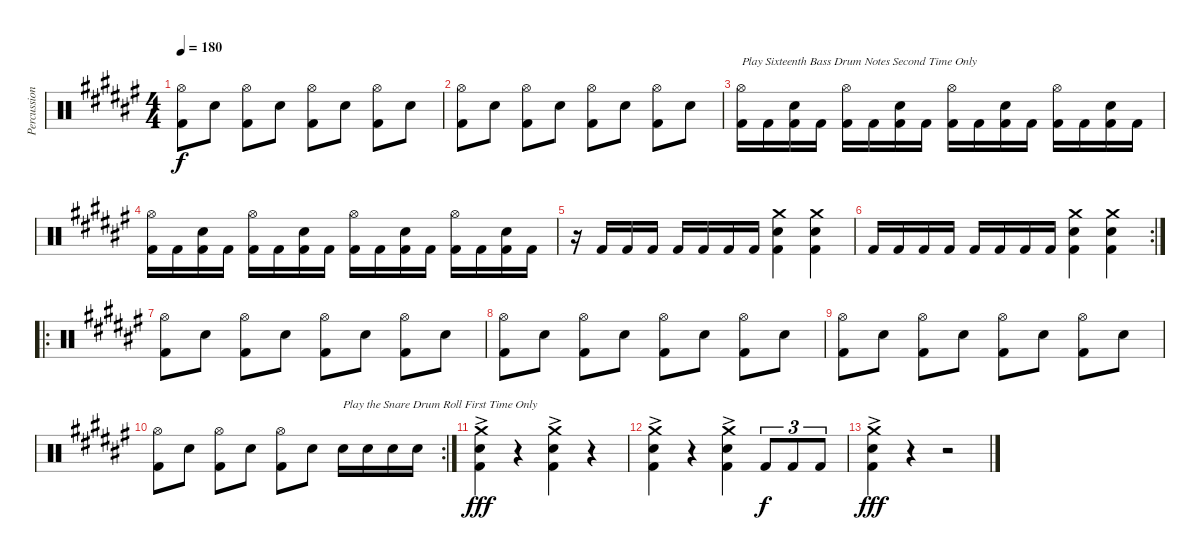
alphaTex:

\track ("Percussion" "Percussion") {instrument percussion}
\staff {score}
\articulation defaults
\ts (4 4)
\tempo 180
\clef neutral
\ks f#
("Hi-Hat (open)" "Kick (hit) 2").8{dy f} "Snare (hit) 2".8 ("Hi-Hat (open)" "Kick (hit) 2").8 "Snare (hit) 2".8 ("Hi-Hat (open)" "Kick (hit) 2").8 "Snare (hit) 2".8 ("Hi-Hat (open)" "Kick (hit) 2").8 "Snare (hit) 2".8 |
("Hi-Hat (open)" "Kick (hit) 2").8 "Snare (hit) 2".8 ("Hi-Hat (open)" "Kick (hit) 2").8 "Snare (hit) 2".8 ("Hi-Hat (open)" "Kick (hit) 2").8 "Snare (hit) 2".8 ("Hi-Hat (open)" "Kick (hit) 2").8 "Snare (hit) 2".8 |
("Hi-Hat (open)" "Kick (hit) 2").16{txt "Play Sixteenth Bass Drum Notes Second Time Only"} "Kick (hit) 2".16 ("Snare (hit) 2" "Kick (hit) 2").16 "Kick (hit) 2".16 ("Hi-Hat (open)" "Kick (hit) 2").16 "Kick (hit) 2".16 ("Snare (hit) 2" "Kick (hit) 2").16 "Kick (hit) 2".16 ("Hi-Hat (open)" "Kick (hit) 2").16 "Kick (hit) 2".16 ("Snare (hit) 2" "Kick (hit) 2").16 "Kick (hit) 2".16 ("Hi-Hat (open)" "Kick (hit) 2").16 "Kick (hit) 2".16 ("Snare (hit) 2" "Kick (hit) 2").16 "Kick (hit) 2".16 |
("Hi-Hat (open)" "Kick (hit) 2").16 "Kick (hit) 2".16 ("Snare (hit) 2" "Kick (hit) 2").16 "Kick (hit) 2".16 ("Hi-Hat (open)" "Kick (hit) 2").16 "Kick (hit) 2".16 ("Snare (hit) 2" "Kick (hit) 2").16 "Kick (hit) 2".16 ("Hi-Hat (open)" "Kick (hit) 2").16 "Kick (hit) 2".16 ("Snare (hit) 2" "Kick (hit) 2").16 "Kick (hit) 2".16 ("Hi-Hat (open)" "Kick (hit) 2").16 "Kick (hit) 2".16 ("Snare (hit) 2" "Kick (hit) 2").16 "Kick (hit) 2".16 |
r.16 "Kick (hit) 2".16 "Kick (hit) 2".16 "Kick (hit) 2".16 "Kick (hit) 2".16 "Kick (hit) 2".16 "Kick (hit) 2".16 "Kick (hit) 2".16 ("Crash medium (hit)" "Snare (hit) 2" "Kick (hit) 2").4 ("Crash medium (hit)" "Snare (hit) 2" "Kick (hit) 2").4 |
\rc 2 "Kick (hit) 2".16 "Kick (hit) 2".16 "Kick (hit) 2".16 "Kick (hit) 2".16 "Kick (hit) 2".16 "Kick (hit) 2".16 "Kick (hit) 2".16 "Kick (hit) 2".16
("Crash medium (hit)" "Snare (hit) 2" "Kick (hit) 2").4 ("Crash medium (hit)" "Snare (hit) 2" "Kick (hit) 2").4 |
\ro
("Hi-Hat (open)" "Kick (hit) 2").8 "Snare (hit) 2".8 ("Hi-Hat (open)" "Kick (hit) 2").8 "Snare (hit) 2".8 ("Hi-Hat (open)" "Kick (hit) 2").8 "Snare (hit) 2".8 ("Hi-Hat (open)" "Kick (hit) 2").8 "Snare (hit) 2".8 |
("Hi-Hat (open)" "Kick (hit) 2").8 "Snare (hit) 2".8 ("Hi-Hat (open)" "Kick (hit) 2").8 "Snare (hit) 2".8 ("Hi-Hat (open)" "Kick (hit) 2").8 "Snare (hit) 2".8 ("Hi-Hat (open)" "Kick (hit) 2").8 "Snare (hit) 2".8 |
("Hi-Hat (open)" "Kick (hit) 2").8 "Snare (hit) 2".8 ("Hi-Hat (open)" "Kick (hit) 2").8 "Snare (hit) 2".8 ("Hi-Hat (open)" "Kick (hit) 2").8 "Snare (hit) 2".8 ("Hi-Hat (open)" "Kick (hit) 2").8 "Snare (hit) 2".8 |
\rc 2
("Hi-Hat (open)" "Kick (hit) 2").8 "Snare (hit) 2".8 ("Hi-Hat (open)" "Kick (hit) 2").8 "Snare (hit) 2".8 ("Hi-Hat (open)" "Kick (hit) 2").8 "Snare (hit) 2".8 "Snare (hit) 2".16{txt "Play the Snare Drum Roll First Time Only"} "Snare (hit) 2".16 "Snare (hit) 2".16 "Snare (hit) 2".16 |
("Crash medium (hit)"{ac} "Snare (hit) 2"{ac} "Kick (hit) 2"{ac}).4{dy fff} r.4 ("Crash medium (hit)"{ac} "Snare (hit) 2"{ac} "Kick (hit) 2"{ac}).4 r.4 |
("Crash medium (hit)"{ac} "Snare (hit) 2"{ac} "Kick (hit) 2"{ac}).4 r.4 ("Crash medium (hit)"{ac} "Snare (hit) 2"{ac} "Kick (hit) 2"{ac}).4 "Kick (hit) 2".8{tu (3 2) dy f} "Kick (hit) 2".8{tu (3 2)} "Kick (hit) 2".8{tu (3 2)} |
("Crash medium (hit)"{ac} "Snare (hit) 2"{ac} "Kick (hit) 2"{ac}).4{dy fff} r.4 r.2
